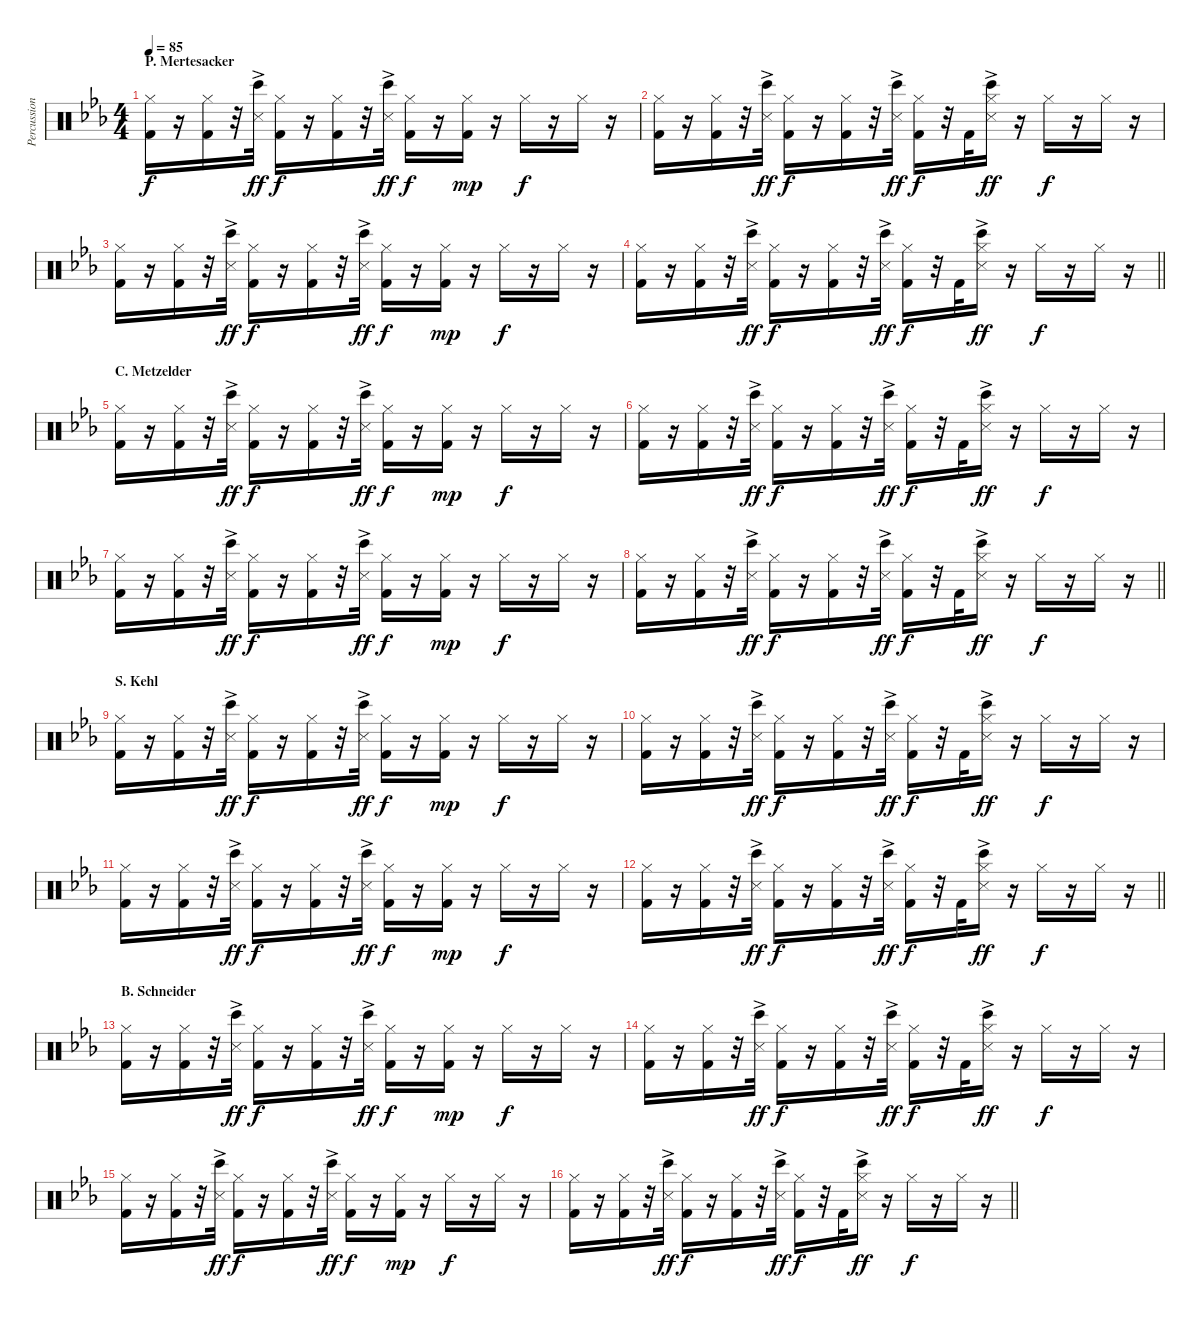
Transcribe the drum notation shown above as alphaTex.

\track ("Percussion" "Percussion") {instrument percussion}
\staff {score}
\articulation defaults
\ts (4 4)
\section ("" "P. Mertesacker")
\tempo 85
\clef neutral
\ks cminor
("Hi-Hat (closed)" "Kick (hit) 2").16{dy f} r.16 ("Hi-Hat (closed)" "Kick (hit) 2").16 r.32 ("Bongo High (hit)" "Metronome (hit)"{ac}).32{dy ff} ("Hi-Hat (closed)" "Kick (hit) 2").16{dy f} r.16 ("Hi-Hat (closed)" "Kick (hit) 2").16 r.32 ("Bongo High (hit)" "Metronome (hit)"{ac}).32{dy ff} ("Hi-Hat (closed)" "Kick (hit) 2").16{dy f} r.16 ("Hi-Hat (closed)" "Kick (hit) 2").16{dy mp} r.16 "Hi-Hat (closed)".16{dy f} r.16 "Hi-Hat (closed)".16 r.16 |
("Hi-Hat (closed)" "Kick (hit) 2").16 r.16 ("Hi-Hat (closed)" "Kick (hit) 2").16 r.32 ("Bongo High (hit)" "Metronome (hit)"{ac}).32{dy ff} ("Hi-Hat (closed)" "Kick (hit) 2").16{dy f} r.16 ("Hi-Hat (closed)" "Kick (hit) 2").16 r.32 ("Bongo High (hit)" "Metronome (hit)"{ac}).32{dy ff} ("Hi-Hat (closed)" "Kick (hit) 2").16{dy f} r.32 "Kick (hit) 2".32 ("Hi-Hat (closed)" "Bongo High (hit)" "Metronome (hit)"{ac}).16{dy ff} r.16 "Hi-Hat (closed)".16{dy f} r.16 "Hi-Hat (closed)".16 r.16 |
("Hi-Hat (closed)" "Kick (hit) 2").16 r.16 ("Hi-Hat (closed)" "Kick (hit) 2").16 r.32 ("Bongo High (hit)" "Metronome (hit)"{ac}).32{dy ff} ("Hi-Hat (closed)" "Kick (hit) 2").16{dy f} r.16 ("Hi-Hat (closed)" "Kick (hit) 2").16 r.32 ("Bongo High (hit)" "Metronome (hit)"{ac}).32{dy ff} ("Hi-Hat (closed)" "Kick (hit) 2").16{dy f} r.16 ("Hi-Hat (closed)" "Kick (hit) 2").16{dy mp} r.16 "Hi-Hat (closed)".16{dy f} r.16 "Hi-Hat (closed)".16 r.16 |
\barLineRight lightlight
("Hi-Hat (closed)" "Kick (hit) 2").16 r.16 ("Hi-Hat (closed)" "Kick (hit) 2").16 r.32 ("Bongo High (hit)" "Metronome (hit)"{ac}).32{dy ff} ("Hi-Hat (closed)" "Kick (hit) 2").16{dy f} r.16 ("Hi-Hat (closed)" "Kick (hit) 2").16 r.32 ("Bongo High (hit)" "Metronome (hit)"{ac}).32{dy ff} ("Hi-Hat (closed)" "Kick (hit) 2").16{dy f} r.32 "Kick (hit) 2".32 ("Hi-Hat (closed)" "Bongo High (hit)" "Metronome (hit)"{ac}).16{dy ff} r.16 "Hi-Hat (closed)".16{dy f} r.16 "Hi-Hat (closed)".16 r.16 |
\section ("" "C. Metzelder")
("Hi-Hat (closed)" "Kick (hit) 2").16 r.16 ("Hi-Hat (closed)" "Kick (hit) 2").16 r.32 ("Bongo High (hit)" "Metronome (hit)"{ac}).32{dy ff} ("Hi-Hat (closed)" "Kick (hit) 2").16{dy f} r.16 ("Hi-Hat (closed)" "Kick (hit) 2").16 r.32 ("Bongo High (hit)" "Metronome (hit)"{ac}).32{dy ff} ("Hi-Hat (closed)" "Kick (hit) 2").16{dy f} r.16 ("Hi-Hat (closed)" "Kick (hit) 2").16{dy mp} r.16 "Hi-Hat (closed)".16{dy f} r.16 "Hi-Hat (closed)".16 r.16 |
("Hi-Hat (closed)" "Kick (hit) 2").16 r.16 ("Hi-Hat (closed)" "Kick (hit) 2").16 r.32 ("Bongo High (hit)" "Metronome (hit)"{ac}).32{dy ff} ("Hi-Hat (closed)" "Kick (hit) 2").16{dy f} r.16 ("Hi-Hat (closed)" "Kick (hit) 2").16 r.32 ("Bongo High (hit)" "Metronome (hit)"{ac}).32{dy ff} ("Hi-Hat (closed)" "Kick (hit) 2").16{dy f} r.32 "Kick (hit) 2".32 ("Hi-Hat (closed)" "Bongo High (hit)" "Metronome (hit)"{ac}).16{dy ff} r.16 "Hi-Hat (closed)".16{dy f} r.16 "Hi-Hat (closed)".16 r.16 |
("Hi-Hat (closed)" "Kick (hit) 2").16 r.16 ("Hi-Hat (closed)" "Kick (hit) 2").16 r.32 ("Bongo High (hit)" "Metronome (hit)"{ac}).32{dy ff} ("Hi-Hat (closed)" "Kick (hit) 2").16{dy f} r.16 ("Hi-Hat (closed)" "Kick (hit) 2").16 r.32 ("Bongo High (hit)" "Metronome (hit)"{ac}).32{dy ff} ("Hi-Hat (closed)" "Kick (hit) 2").16{dy f} r.16 ("Hi-Hat (closed)" "Kick (hit) 2").16{dy mp} r.16 "Hi-Hat (closed)".16{dy f} r.16 "Hi-Hat (closed)".16 r.16 |
\barLineRight lightlight
("Hi-Hat (closed)" "Kick (hit) 2").16 r.16 ("Hi-Hat (closed)" "Kick (hit) 2").16 r.32 ("Bongo High (hit)" "Metronome (hit)"{ac}).32{dy ff} ("Hi-Hat (closed)" "Kick (hit) 2").16{dy f} r.16 ("Hi-Hat (closed)" "Kick (hit) 2").16 r.32 ("Bongo High (hit)" "Metronome (hit)"{ac}).32{dy ff} ("Hi-Hat (closed)" "Kick (hit) 2").16{dy f} r.32 "Kick (hit) 2".32 ("Hi-Hat (closed)" "Bongo High (hit)" "Metronome (hit)"{ac}).16{dy ff} r.16 "Hi-Hat (closed)".16{dy f} r.16 "Hi-Hat (closed)".16 r.16 |
\section ("" "S. Kehl")
("Hi-Hat (closed)" "Kick (hit) 2").16 r.16 ("Hi-Hat (closed)" "Kick (hit) 2").16 r.32 ("Bongo High (hit)" "Metronome (hit)"{ac}).32{dy ff} ("Hi-Hat (closed)" "Kick (hit) 2").16{dy f} r.16 ("Hi-Hat (closed)" "Kick (hit) 2").16 r.32 ("Bongo High (hit)" "Metronome (hit)"{ac}).32{dy ff} ("Hi-Hat (closed)" "Kick (hit) 2").16{dy f} r.16 ("Hi-Hat (closed)" "Kick (hit) 2").16{dy mp} r.16 "Hi-Hat (closed)".16{dy f} r.16 "Hi-Hat (closed)".16 r.16 |
("Hi-Hat (closed)" "Kick (hit) 2").16 r.16 ("Hi-Hat (closed)" "Kick (hit) 2").16 r.32 ("Bongo High (hit)" "Metronome (hit)"{ac}).32{dy ff} ("Hi-Hat (closed)" "Kick (hit) 2").16{dy f} r.16 ("Hi-Hat (closed)" "Kick (hit) 2").16 r.32 ("Bongo High (hit)" "Metronome (hit)"{ac}).32{dy ff} ("Hi-Hat (closed)" "Kick (hit) 2").16{dy f} r.32 "Kick (hit) 2".32 ("Hi-Hat (closed)" "Bongo High (hit)" "Metronome (hit)"{ac}).16{dy ff} r.16 "Hi-Hat (closed)".16{dy f} r.16 "Hi-Hat (closed)".16 r.16 |
("Hi-Hat (closed)" "Kick (hit) 2").16 r.16 ("Hi-Hat (closed)" "Kick (hit) 2").16 r.32 ("Bongo High (hit)" "Metronome (hit)"{ac}).32{dy ff} ("Hi-Hat (closed)" "Kick (hit) 2").16{dy f} r.16 ("Hi-Hat (closed)" "Kick (hit) 2").16 r.32 ("Bongo High (hit)" "Metronome (hit)"{ac}).32{dy ff} ("Hi-Hat (closed)" "Kick (hit) 2").16{dy f} r.16 ("Hi-Hat (closed)" "Kick (hit) 2").16{dy mp} r.16 "Hi-Hat (closed)".16{dy f} r.16 "Hi-Hat (closed)".16 r.16 |
\barLineRight lightlight
("Hi-Hat (closed)" "Kick (hit) 2").16 r.16 ("Hi-Hat (closed)" "Kick (hit) 2").16 r.32 ("Bongo High (hit)" "Metronome (hit)"{ac}).32{dy ff} ("Hi-Hat (closed)" "Kick (hit) 2").16{dy f} r.16 ("Hi-Hat (closed)" "Kick (hit) 2").16 r.32 ("Bongo High (hit)" "Metronome (hit)"{ac}).32{dy ff} ("Hi-Hat (closed)" "Kick (hit) 2").16{dy f} r.32 "Kick (hit) 2".32 ("Hi-Hat (closed)" "Bongo High (hit)" "Metronome (hit)"{ac}).16{dy ff} r.16 "Hi-Hat (closed)".16{dy f} r.16 "Hi-Hat (closed)".16 r.16 |
\section ("" "B. Schneider")
("Hi-Hat (closed)" "Kick (hit) 2").16 r.16 ("Hi-Hat (closed)" "Kick (hit) 2").16 r.32 ("Bongo High (hit)" "Metronome (hit)"{ac}).32{dy ff} ("Hi-Hat (closed)" "Kick (hit) 2").16{dy f} r.16 ("Hi-Hat (closed)" "Kick (hit) 2").16 r.32 ("Bongo High (hit)" "Metronome (hit)"{ac}).32{dy ff} ("Hi-Hat (closed)" "Kick (hit) 2").16{dy f} r.16 ("Hi-Hat (closed)" "Kick (hit) 2").16{dy mp} r.16 "Hi-Hat (closed)".16{dy f} r.16 "Hi-Hat (closed)".16 r.16 |
("Hi-Hat (closed)" "Kick (hit) 2").16 r.16 ("Hi-Hat (closed)" "Kick (hit) 2").16 r.32 ("Bongo High (hit)" "Metronome (hit)"{ac}).32{dy ff} ("Hi-Hat (closed)" "Kick (hit) 2").16{dy f} r.16 ("Hi-Hat (closed)" "Kick (hit) 2").16 r.32 ("Bongo High (hit)" "Metronome (hit)"{ac}).32{dy ff} ("Hi-Hat (closed)" "Kick (hit) 2").16{dy f} r.32 "Kick (hit) 2".32 ("Hi-Hat (closed)" "Bongo High (hit)" "Metronome (hit)"{ac}).16{dy ff} r.16 "Hi-Hat (closed)".16{dy f} r.16 "Hi-Hat (closed)".16 r.16 |
("Hi-Hat (closed)" "Kick (hit) 2").16 r.16 ("Hi-Hat (closed)" "Kick (hit) 2").16 r.32 ("Bongo High (hit)" "Metronome (hit)"{ac}).32{dy ff} ("Hi-Hat (closed)" "Kick (hit) 2").16{dy f} r.16 ("Hi-Hat (closed)" "Kick (hit) 2").16 r.32 ("Bongo High (hit)" "Metronome (hit)"{ac}).32{dy ff} ("Hi-Hat (closed)" "Kick (hit) 2").16{dy f} r.16 ("Hi-Hat (closed)" "Kick (hit) 2").16{dy mp} r.16 "Hi-Hat (closed)".16{dy f} r.16 "Hi-Hat (closed)".16 r.16 |
\barLineRight lightlight
("Hi-Hat (closed)" "Kick (hit) 2").16 r.16 ("Hi-Hat (closed)" "Kick (hit) 2").16 r.32 ("Bongo High (hit)" "Metronome (hit)"{ac}).32{dy ff} ("Hi-Hat (closed)" "Kick (hit) 2").16{dy f} r.16 ("Hi-Hat (closed)" "Kick (hit) 2").16 r.32 ("Bongo High (hit)" "Metronome (hit)"{ac}).32{dy ff} ("Hi-Hat (closed)" "Kick (hit) 2").16{dy f} r.32 "Kick (hit) 2".32 ("Hi-Hat (closed)" "Bongo High (hit)" "Metronome (hit)"{ac}).16{dy ff} r.16 "Hi-Hat (closed)".16{dy f} r.16 "Hi-Hat (closed)".16 r.16
